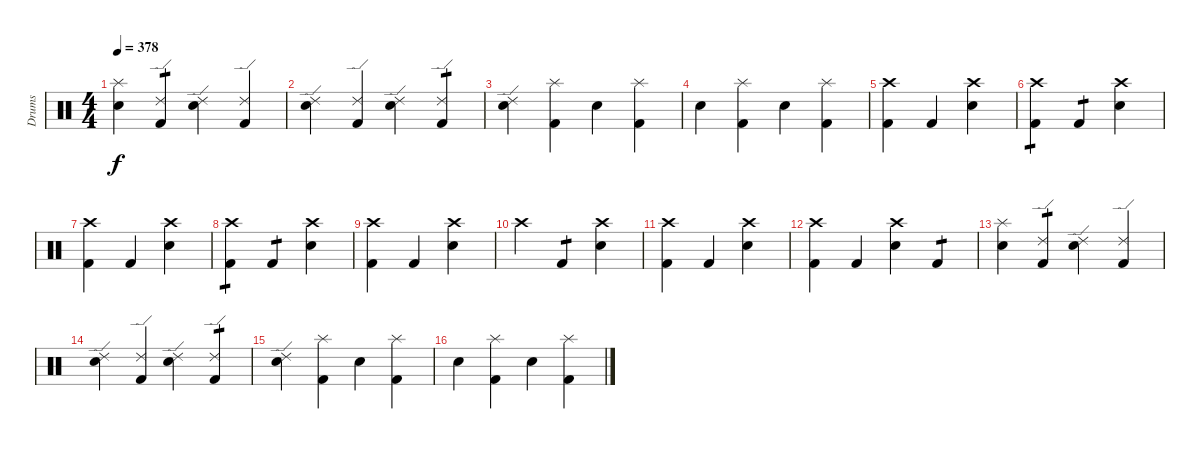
\track ("Drums" "Drums") {instrument percussion}
\staff {score}
\articulation defaults
\ts (4 4)
\tempo 378
\clef neutral
\ks c
("Splash (hit)" "Electric Snare (hit)").4{dy f} ("Ride (edge) 2" "Kick (hit) 2").4{tp 1} ("Ride (edge) 2" "Electric Snare (hit)").4 ("Ride (edge) 2" "Kick (hit) 2").4 |
("Ride (edge) 2" "Electric Snare (hit)").4 ("Ride (edge) 2" "Kick (hit) 2").4 ("Ride (edge) 2" "Electric Snare (hit)").4 ("Ride (edge) 2" "Kick (hit) 2").4{tp 1} |
("Ride (edge) 2" "Electric Snare (hit)").4 ("Splash (hit)" "Kick (hit) 2").4 "Electric Snare (hit)".4 ("Splash (hit)" "Kick (hit) 2").4 |
"Electric Snare (hit)".4 ("Splash (hit)" "Kick (hit) 2").4 "Electric Snare (hit)".4 ("Splash (hit)" "Kick (hit) 2").4 |
("Crash high (hit)" "Kick (hit) 2").4 "Kick (hit) 2".4 ("Crash high (hit)" "Electric Snare (hit)").4 |
("Crash high (hit)" "Kick (hit) 2").4{tp 1} "Kick (hit) 2".4{tp 1} ("Crash high (hit)" "Electric Snare (hit)").4 |
("Crash high (hit)" "Kick (hit) 2").4 "Kick (hit) 2".4 ("Crash high (hit)" "Electric Snare (hit)").4 |
("Crash high (hit)" "Kick (hit) 2").4{tp 1} "Kick (hit) 2".4{tp 1} ("Crash high (hit)" "Electric Snare (hit)").4 |
("Crash high (hit)" "Kick (hit) 2").4 "Kick (hit) 2".4 ("Crash high (hit)" "Electric Snare (hit)").4 |
"Crash high (hit)".4 "Kick (hit) 2".4{tp 1} ("Crash high (hit)" "Electric Snare (hit)").4 |
("Crash high (hit)" "Kick (hit) 2").4 "Kick (hit) 2".4 ("Crash high (hit)" "Electric Snare (hit)").4 |
("Crash high (hit)" "Kick (hit) 2").4 "Kick (hit) 2".4 ("Crash high (hit)" "Electric Snare (hit)").4 "Kick (hit) 2".4{tp 1} |
("Splash (hit)" "Electric Snare (hit)").4 ("Ride (edge) 2" "Kick (hit) 2").4{tp 1} ("Ride (edge) 2" "Electric Snare (hit)").4 ("Ride (edge) 2" "Kick (hit) 2").4 |
("Ride (edge) 2" "Electric Snare (hit)").4 ("Ride (edge) 2" "Kick (hit) 2").4 ("Ride (edge) 2" "Electric Snare (hit)").4 ("Ride (edge) 2" "Kick (hit) 2").4{tp 1} |
("Ride (edge) 2" "Electric Snare (hit)").4 ("Splash (hit)" "Kick (hit) 2").4 "Electric Snare (hit)".4 ("Splash (hit)" "Kick (hit) 2").4 |
"Electric Snare (hit)".4 ("Splash (hit)" "Kick (hit) 2").4 "Electric Snare (hit)".4 ("Splash (hit)" "Kick (hit) 2").4
